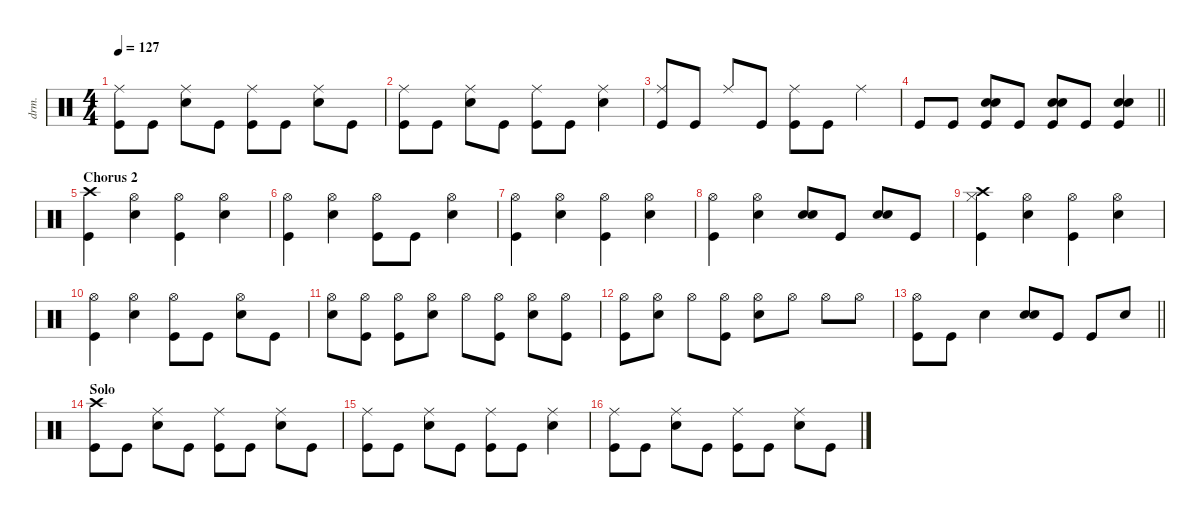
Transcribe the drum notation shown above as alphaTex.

\defaultSystemsLayout 4
\hideDynamics
\bracketExtendMode nobrackets
\otherSystemsTrackNameOrientation horizontal
\track ("Drums" "drm.") {defaultSystemsLayout 4 instrument percussion}
\staff {score}
\articulation defaults
\ts (4 4)
\tempo 127
\clef neutral
\ks c
("Ride (middle)" "Kick (hit)").8{dy f beam Down} "Kick (hit)".8{beam Down} ("Ride (middle)" "Snare (hit) 2").8{beam Down} "Kick (hit)".8{beam Down} ("Ride (middle)" "Kick (hit)").8{beam Down} "Kick (hit)".8{beam Down} ("Ride (middle)" "Snare (hit) 2").8{beam Down} "Kick (hit)".8{beam Down} |
("Ride (middle)" "Kick (hit)").8{beam Down} "Kick (hit)".8{beam Down} ("Ride (middle)" "Snare (hit) 2").8{beam Down} "Kick (hit)".8{beam Down} ("Ride (middle)" "Kick (hit)").8{beam Down} "Kick (hit)".8{beam Down} ("Ride (middle)" "Snare (hit) 2").4{beam Down} |
("Ride (middle)" "Kick (hit)").8{beam Up} "Kick (hit)".8{beam Up} "Ride (middle)".8{beam Up} "Kick (hit)".8{beam Up} ("Ride (middle)" "Kick (hit)").8{beam Down} "Kick (hit)".8{beam Down} "Ride (middle)".4{beam Down} |
\barLineRight lightlight "Kick (hit)".8{beam Up} "Kick (hit)".8{beam Up}
("Snare (hit) 2" "Snare (hit) 2" "Kick (hit)").8{beam Up} "Kick (hit)".8{beam Up} ("Snare (hit) 2" "Snare (hit) 2" "Kick (hit)").8{beam Up} "Kick (hit)".8{beam Up} ("Snare (hit) 2" "Snare (hit) 2" "Kick (hit)").4{beam Up} |
\section ("" "Chorus 2")
("Crash high (hit)" "Kick (hit)").4{beam Down} ("Hi-Hat (open)" "Snare (hit) 2").4{beam Down} ("Hi-Hat (open)" "Kick (hit)").4{beam Down} ("Hi-Hat (open)" "Snare (hit) 2").4{beam Down} |
("Hi-Hat (open)" "Kick (hit)").4{beam Down} ("Hi-Hat (open)" "Snare (hit) 2").4{beam Down} ("Hi-Hat (open)" "Kick (hit)").8{beam Down} "Kick (hit)".8{beam Down} ("Hi-Hat (open)" "Snare (hit) 2").4{beam Down} |
("Hi-Hat (open)" "Kick (hit)").4{beam Down} ("Hi-Hat (open)" "Snare (hit) 2").4{beam Down} ("Hi-Hat (open)" "Kick (hit)").4{beam Down} ("Hi-Hat (open)" "Snare (hit) 2").4{beam Down} |
("Hi-Hat (open)" "Kick (hit)").4{beam Down} ("Hi-Hat (open)" "Snare (hit) 2").4{beam Down} ("Snare (hit) 2" "Snare (hit) 2").8{beam Up} "Kick (hit)".8{beam Up} ("Snare (hit) 2" "Snare (hit) 2").8{beam Up} "Kick (hit)".8{beam Up} |
("Crash high (hit)" "Hi-Hat (closed)" "Kick (hit)").4{beam Down} ("Hi-Hat (open)" "Snare (hit) 2").4{beam Down} ("Hi-Hat (open)" "Kick (hit)").4{beam Down} ("Hi-Hat (open)" "Snare (hit) 2").4{beam Down} |
("Hi-Hat (open)" "Kick (hit)").4{beam Down} ("Hi-Hat (open)" "Snare (hit) 2").4{beam Down} ("Hi-Hat (open)" "Kick (hit)").8{beam Down} "Kick (hit)".8{beam Down} ("Hi-Hat (open)" "Snare (hit) 2").8{beam Down} "Kick (hit)".8{beam Down} |
("Hi-Hat (open)" "Snare (hit) 2").8{beam Down} ("Hi-Hat (open)" "Kick (hit)").8{beam Down} ("Hi-Hat (open)" "Kick (hit)").8{beam Down} ("Hi-Hat (open)" "Snare (hit) 2").8{beam Down} "Hi-Hat (open)".8{beam Down} ("Hi-Hat (open)" "Kick (hit)").8{beam Down} ("Hi-Hat (open)" "Snare (hit) 2").8{beam Down} ("Hi-Hat (open)" "Kick (hit)").8{beam Down} |
("Hi-Hat (open)" "Kick (hit)").8{beam Down} ("Hi-Hat (open)" "Snare (hit) 2").8{beam Down} "Hi-Hat (open)".8{beam Down} ("Hi-Hat (open)" "Kick (hit)").8{beam Down} ("Hi-Hat (open)" "Snare (hit) 2").8{beam Down} "Hi-Hat (open)".8{beam Down} "Hi-Hat (open)".8{beam Down} "Hi-Hat (open)".8{beam Down} |
\barLineRight lightlight
("Hi-Hat (open)" "Kick (hit)").8{beam Down} "Kick (hit)".8{beam Down} "Snare (hit) 2".4{beam Down} ("Snare (hit) 2" "Snare (hit) 2").8{beam Up} "Kick (hit)".8{beam Up} "Kick (hit)".8{beam Up} "Snare (hit) 2".8{beam Up} |
\section ("" "Solo")
("Crash high (hit)" "Kick (hit)").8{beam Down} "Kick (hit)".8{beam Down} ("Ride (middle)" "Snare (hit) 2").8{beam Down} "Kick (hit)".8{beam Down} ("Ride (middle)" "Kick (hit)").8{beam Down} "Kick (hit)".8{beam Down} ("Ride (middle)" "Snare (hit) 2").8{beam Down} "Kick (hit)".8{beam Down} |
("Ride (middle)" "Kick (hit)").8{beam Down} "Kick (hit)".8{beam Down} ("Ride (middle)" "Snare (hit) 2").8{beam Down} "Kick (hit)".8{beam Down} ("Ride (middle)" "Kick (hit)").8{beam Down} "Kick (hit)".8{beam Down} ("Ride (middle)" "Snare (hit) 2").4{beam Down} |
("Ride (middle)" "Kick (hit)").8{beam Down} "Kick (hit)".8{beam Down} ("Ride (middle)" "Snare (hit) 2").8{beam Down} "Kick (hit)".8{beam Down} ("Ride (middle)" "Kick (hit)").8{beam Down} "Kick (hit)".8{beam Down} ("Ride (middle)" "Snare (hit) 2").8{beam Down} "Kick (hit)".8{beam Down}
